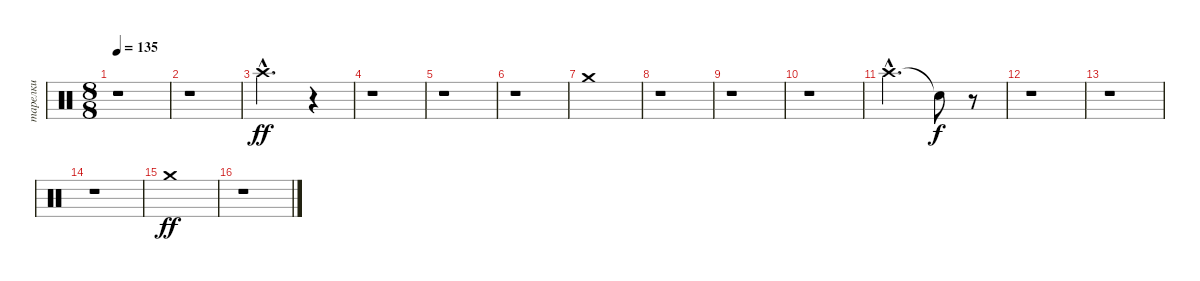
\track ("тарелки" "тарелки") {instrument percussion}
\staff {score}
\articulation defaults
\ts (8 8)
\tempo 135
\clef neutral
\ks c
r.1{dy ff} |
r.1 |
"Crash high (hit)"{hac}.2{d} r.4 |
r.1 |
r.1 |
r.1 |
"Crash medium (hit)".1 |
r.1 |
r.1 |
r.1 |
"Crash high (hit)"{hac}.2{d} "Snare (hit)"{t}.8{dy f} r.8 |
r.1 |
r.1 |
r.1 |
"Crash medium (hit)".1{dy ff} |
r.1
